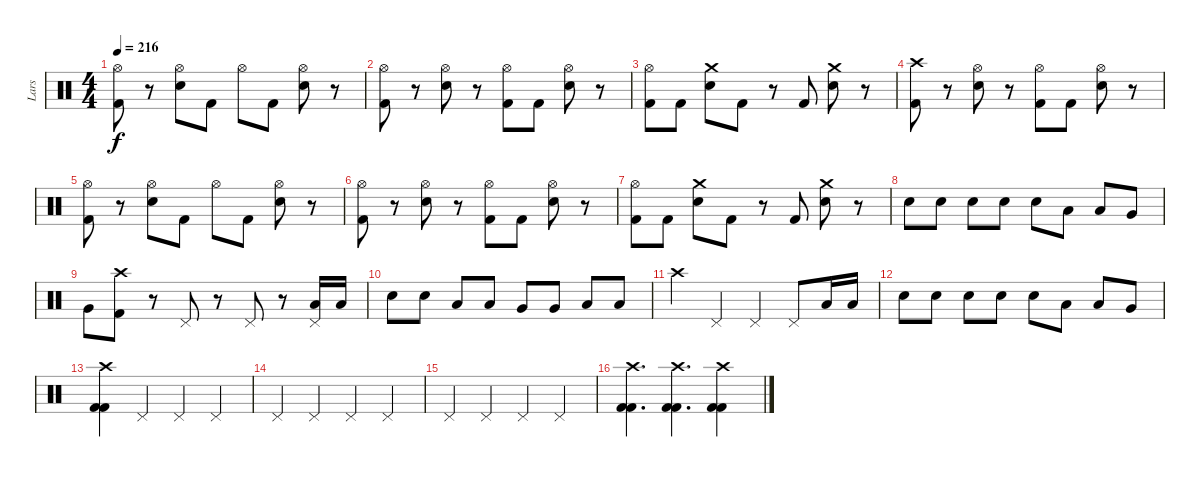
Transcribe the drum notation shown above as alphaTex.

\track ("Lars" "Lars") {instrument percussion}
\staff {score}
\articulation defaults
\ts (4 4)
\tempo 216
\clef neutral
\ks c
("Hi-Hat (open)" "Kick (hit) 2").8{dy f} r.8 ("Hi-Hat (open)" "Snare (hit) 2").8 "Kick (hit) 2".8 "Hi-Hat (open)".8 "Kick (hit) 2".8 ("Hi-Hat (open)" "Snare (hit) 2").8 r.8 |
("Hi-Hat (open)" "Kick (hit) 2").8 r.8 ("Hi-Hat (open)" "Snare (hit) 2").8 r.8 ("Hi-Hat (open)" "Kick (hit) 2").8 "Kick (hit) 2".8 ("Hi-Hat (open)" "Snare (hit) 2").8 r.8 |
("Hi-Hat (open)" "Kick (hit) 2").8 "Kick (hit) 2".8 ("Crash medium (hit)" "Snare (hit) 2").8 "Kick (hit) 2".8 r.8 "Kick (hit) 2".8 ("Crash medium (hit)" "Snare (hit) 2").8 r.8 |
("Crash high (hit)" "Kick (hit) 2").8 r.8 ("Hi-Hat (open)" "Snare (hit) 2").8 r.8 ("Hi-Hat (open)" "Kick (hit) 2").8 "Kick (hit) 2".8 ("Hi-Hat (open)" "Snare (hit) 2").8 r.8 |
("Hi-Hat (open)" "Kick (hit) 2").8 r.8 ("Hi-Hat (open)" "Snare (hit) 2").8 "Kick (hit) 2".8 "Hi-Hat (open)".8 "Kick (hit) 2".8 ("Hi-Hat (open)" "Snare (hit) 2").8 r.8 |
("Hi-Hat (open)" "Kick (hit) 2").8 r.8 ("Hi-Hat (open)" "Snare (hit) 2").8 r.8 ("Hi-Hat (open)" "Kick (hit) 2").8 "Kick (hit) 2".8 ("Hi-Hat (open)" "Snare (hit) 2").8 r.8 |
("Hi-Hat (open)" "Kick (hit) 2").8 "Kick (hit) 2".8 ("Crash medium (hit)" "Snare (hit) 2").8 "Kick (hit) 2".8 r.8 "Kick (hit) 2".8 ("Crash medium (hit)" "Snare (hit) 2").8 r.8 |
"Snare (hit) 2".8 "Snare (hit) 2".8 "Snare (hit) 2".8 "Snare (hit) 2".8 "Snare (hit) 2".8 "Low Tom (hit)".8 "Low Tom (hit)".8 "Very Low Tom (hit)".8 |
"Very Low Tom (hit)".8 ("Crash high (hit)" "Kick (hit) 2").8 r.8 "Pedal Hi-Hat (hit)".8 r.8 "Pedal Hi-Hat (hit)".8 r.8 ("Pedal Hi-Hat (hit)" "Low Tom (hit)").16 "Low Tom (hit)".16 |
"Snare (hit) 2".8 "Snare (hit) 2".8 "Low Tom (hit)".8 "Low Tom (hit)".8 "Very Low Tom (hit)".8 "Very Low Tom (hit)".8 "Low Floor Tom (hit)".8 "Low Floor Tom (hit)".8 |
"Crash high (hit)".4 "Pedal Hi-Hat (hit)".4 "Pedal Hi-Hat (hit)".4 "Pedal Hi-Hat (hit)".8 "Low Tom (hit)".16 "Low Tom (hit)".16 |
"Snare (hit) 2".8 "Snare (hit) 2".8 "Snare (hit) 2".8 "Snare (hit) 2".8 "Snare (hit) 2".8 "Low Tom (hit)".8 "Low Tom (hit)".8 "Very Low Tom (hit)".8 |
("Crash high (hit)" "Kick (hit) 2" "Kick (hit) 2").4 "Pedal Hi-Hat (hit)".4 "Pedal Hi-Hat (hit)".4 "Pedal Hi-Hat (hit)".4 |
"Pedal Hi-Hat (hit)".4 "Pedal Hi-Hat (hit)".4 "Pedal Hi-Hat (hit)".4 "Pedal Hi-Hat (hit)".4 |
"Pedal Hi-Hat (hit)".4 "Pedal Hi-Hat (hit)".4 "Pedal Hi-Hat (hit)".4 "Pedal Hi-Hat (hit)".4 |
("Crash high (hit)" "Kick (hit) 2" "Kick (hit) 2").4{d} ("Crash high (hit)" "Kick (hit) 2" "Kick (hit) 2").4{d} ("Crash high (hit)" "Kick (hit) 2" "Kick (hit) 2").4
